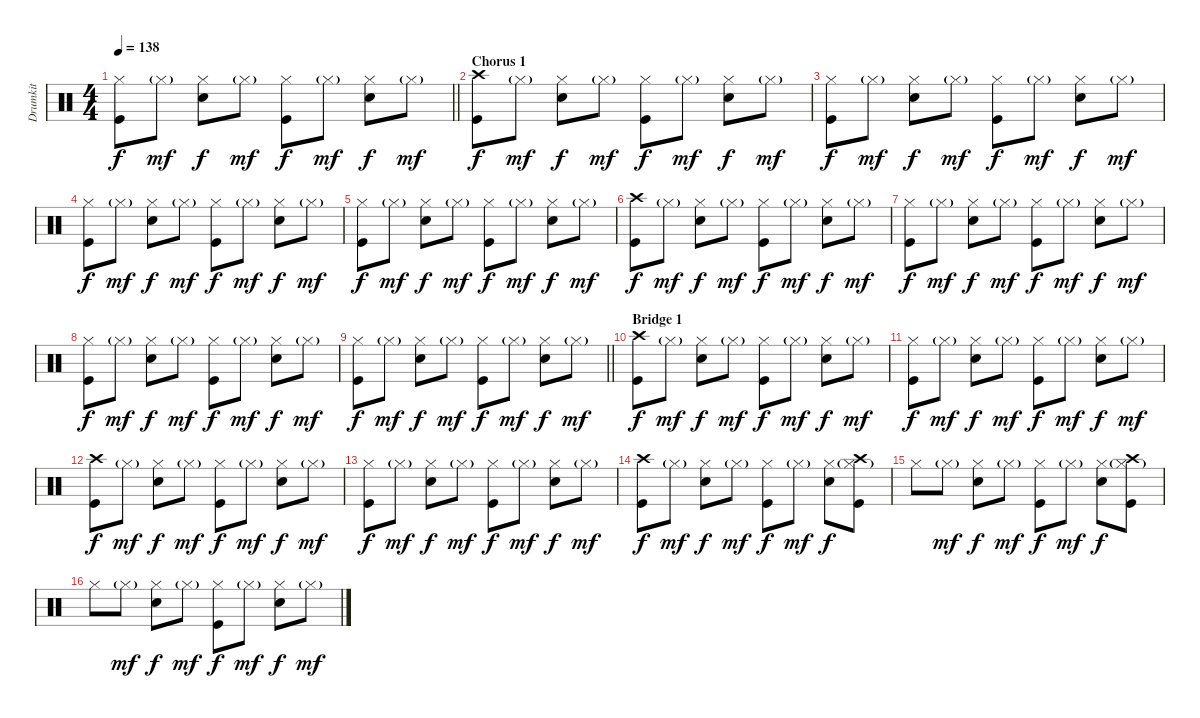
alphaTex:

\track ("Drumkit" "Drumkit") {instrument percussion}
\staff {score}
\articulation defaults
\ts (4 4)
\tempo 138
\clef neutral
\barLineRight lightlight
\ks c
("Hi-Hat (closed)" "Kick (hit)").8{dy f} "Hi-Hat (closed)"{g}.8{dy mf} ("Hi-Hat (closed)" "Snare (hit) 2").8{dy f} "Hi-Hat (closed)"{g}.8{dy mf} ("Hi-Hat (closed)" "Kick (hit)").8{dy f} "Hi-Hat (closed)"{g}.8{dy mf} ("Hi-Hat (closed)" "Snare (hit) 2").8{dy f} "Hi-Hat (closed)"{g}.8{dy mf} |
\section ("" "Chorus 1")
("Crash high (hit)" "Kick (hit)").8{dy f} "Hi-Hat (closed)"{g}.8{dy mf} ("Hi-Hat (closed)" "Snare (hit) 2").8{dy f} "Hi-Hat (closed)"{g}.8{dy mf} ("Hi-Hat (closed)" "Kick (hit)").8{dy f} "Hi-Hat (closed)"{g}.8{dy mf} ("Hi-Hat (closed)" "Snare (hit) 2").8{dy f} "Hi-Hat (closed)"{g}.8{dy mf} |
("Hi-Hat (closed)" "Kick (hit)").8{dy f} "Hi-Hat (closed)"{g}.8{dy mf} ("Hi-Hat (closed)" "Snare (hit) 2").8{dy f} "Hi-Hat (closed)"{g}.8{dy mf} ("Hi-Hat (closed)" "Kick (hit)").8{dy f} "Hi-Hat (closed)"{g}.8{dy mf} ("Hi-Hat (closed)" "Snare (hit) 2").8{dy f} "Hi-Hat (closed)"{g}.8{dy mf} |
("Hi-Hat (closed)" "Kick (hit)").8{dy f} "Hi-Hat (closed)"{g}.8{dy mf} ("Hi-Hat (closed)" "Snare (hit) 2").8{dy f} "Hi-Hat (closed)"{g}.8{dy mf} ("Hi-Hat (closed)" "Kick (hit)").8{dy f} "Hi-Hat (closed)"{g}.8{dy mf} ("Hi-Hat (closed)" "Snare (hit) 2").8{dy f} "Hi-Hat (closed)"{g}.8{dy mf} |
("Hi-Hat (closed)" "Kick (hit)").8{dy f} "Hi-Hat (closed)"{g}.8{dy mf} ("Hi-Hat (closed)" "Snare (hit) 2").8{dy f} "Hi-Hat (closed)"{g}.8{dy mf} ("Hi-Hat (closed)" "Kick (hit)").8{dy f} "Hi-Hat (closed)"{g}.8{dy mf} ("Hi-Hat (closed)" "Snare (hit) 2").8{dy f} "Hi-Hat (closed)"{g}.8{dy mf} |
("Crash high (hit)" "Kick (hit)").8{dy f} "Hi-Hat (closed)"{g}.8{dy mf} ("Hi-Hat (closed)" "Snare (hit) 2").8{dy f} "Hi-Hat (closed)"{g}.8{dy mf} ("Hi-Hat (closed)" "Kick (hit)").8{dy f} "Hi-Hat (closed)"{g}.8{dy mf} ("Hi-Hat (closed)" "Snare (hit) 2").8{dy f} "Hi-Hat (closed)"{g}.8{dy mf} |
("Hi-Hat (closed)" "Kick (hit)").8{dy f} "Hi-Hat (closed)"{g}.8{dy mf} ("Hi-Hat (closed)" "Snare (hit) 2").8{dy f} "Hi-Hat (closed)"{g}.8{dy mf} ("Hi-Hat (closed)" "Kick (hit)").8{dy f} "Hi-Hat (closed)"{g}.8{dy mf} ("Hi-Hat (closed)" "Snare (hit) 2").8{dy f} "Hi-Hat (closed)"{g}.8{dy mf} |
("Hi-Hat (closed)" "Kick (hit)").8{dy f} "Hi-Hat (closed)"{g}.8{dy mf} ("Hi-Hat (closed)" "Snare (hit) 2").8{dy f} "Hi-Hat (closed)"{g}.8{dy mf} ("Hi-Hat (closed)" "Kick (hit)").8{dy f} "Hi-Hat (closed)"{g}.8{dy mf} ("Hi-Hat (closed)" "Snare (hit) 2").8{dy f} "Hi-Hat (closed)"{g}.8{dy mf} |
\barLineRight lightlight
("Hi-Hat (closed)" "Kick (hit)").8{dy f} "Hi-Hat (closed)"{g}.8{dy mf} ("Hi-Hat (closed)" "Snare (hit) 2").8{dy f} "Hi-Hat (closed)"{g}.8{dy mf} ("Hi-Hat (closed)" "Kick (hit)").8{dy f} "Hi-Hat (closed)"{g}.8{dy mf} ("Hi-Hat (closed)" "Snare (hit) 2").8{dy f} "Hi-Hat (closed)"{g}.8{dy mf} |
\section ("" "Bridge 1")
("Crash high (hit)" "Kick (hit)").8{dy f} "Hi-Hat (closed)"{g}.8{dy mf} ("Hi-Hat (closed)" "Snare (hit) 2").8{dy f} "Hi-Hat (closed)"{g}.8{dy mf} ("Hi-Hat (closed)" "Kick (hit)").8{dy f} "Hi-Hat (closed)"{g}.8{dy mf} ("Hi-Hat (closed)" "Snare (hit) 2").8{dy f} "Hi-Hat (closed)"{g}.8{dy mf} |
("Hi-Hat (closed)" "Kick (hit)").8{dy f} "Hi-Hat (closed)"{g}.8{dy mf} ("Hi-Hat (closed)" "Snare (hit) 2").8{dy f} "Hi-Hat (closed)"{g}.8{dy mf} ("Hi-Hat (closed)" "Kick (hit)").8{dy f} "Hi-Hat (closed)"{g}.8{dy mf} ("Hi-Hat (closed)" "Snare (hit) 2").8{dy f} "Hi-Hat (closed)"{g}.8{dy mf} |
("Crash high (hit)" "Kick (hit)").8{dy f} "Hi-Hat (closed)"{g}.8{dy mf} ("Hi-Hat (closed)" "Snare (hit) 2").8{dy f} "Hi-Hat (closed)"{g}.8{dy mf} ("Hi-Hat (closed)" "Kick (hit)").8{dy f} "Hi-Hat (closed)"{g}.8{dy mf} ("Hi-Hat (closed)" "Snare (hit) 2").8{dy f} "Hi-Hat (closed)"{g}.8{dy mf} |
("Hi-Hat (closed)" "Kick (hit)").8{dy f} "Hi-Hat (closed)"{g}.8{dy mf} ("Hi-Hat (closed)" "Snare (hit) 2").8{dy f} "Hi-Hat (closed)"{g}.8{dy mf} ("Hi-Hat (closed)" "Kick (hit)").8{dy f} "Hi-Hat (closed)"{g}.8{dy mf} ("Hi-Hat (closed)" "Snare (hit) 2").8{dy f} "Hi-Hat (closed)"{g}.8{dy mf} |
("Crash high (hit)" "Kick (hit)").8{dy f} "Hi-Hat (closed)"{g}.8{dy mf} ("Hi-Hat (closed)" "Snare (hit) 2").8{dy f} "Hi-Hat (closed)"{g}.8{dy mf} ("Hi-Hat (closed)" "Kick (hit)").8{dy f} "Hi-Hat (closed)"{g}.8{dy mf} ("Hi-Hat (closed)" "Snare (hit) 2").8{dy f} ("Crash high (hit)" "Hi-Hat (closed)"{g} "Kick (hit)").8 |
"Hi-Hat (closed)".8 "Hi-Hat (closed)"{g}.8{dy mf} ("Hi-Hat (closed)" "Snare (hit) 2").8{dy f} "Hi-Hat (closed)"{g}.8{dy mf} ("Hi-Hat (closed)" "Kick (hit)").8{dy f} "Hi-Hat (closed)"{g}.8{dy mf} ("Hi-Hat (closed)" "Snare (hit) 2").8{dy f} ("Crash high (hit)" "Hi-Hat (closed)"{g} "Kick (hit)").8 |
"Hi-Hat (closed)".8 "Hi-Hat (closed)"{g}.8{dy mf} ("Hi-Hat (closed)" "Snare (hit) 2").8{dy f} "Hi-Hat (closed)"{g}.8{dy mf} ("Hi-Hat (closed)" "Kick (hit)").8{dy f} "Hi-Hat (closed)"{g}.8{dy mf} ("Hi-Hat (closed)" "Snare (hit) 2").8{dy f} "Hi-Hat (closed)"{g}.8{dy mf}
